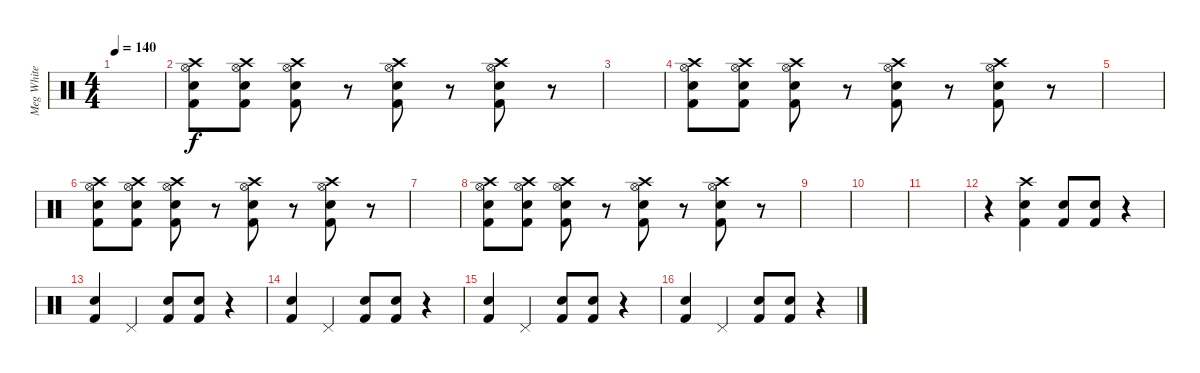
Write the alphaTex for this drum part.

\track ("Meg White" "Meg White") {instrument percussion}
\staff {score}
\articulation defaults
\ts (4 4)
\tempo 140
\clef neutral
\ks c
|
("Crash high (hit)" "Electric Snare (hit)" "Kick (hit) 2" "Hi-Hat (open)").8 ("Crash high (hit)" "Electric Snare (hit)" "Kick (hit) 2" "Hi-Hat (open)").8 ("Crash high (hit)" "Electric Snare (hit)" "Kick (hit) 2" "Hi-Hat (open)").8 r.8 ("Crash high (hit)" "Electric Snare (hit)" "Kick (hit) 2" "Hi-Hat (open)").8 r.8 ("Crash high (hit)" "Electric Snare (hit)" "Kick (hit) 2" "Hi-Hat (open)").8 r.8 |
|
("Crash high (hit)" "Electric Snare (hit)" "Kick (hit) 2" "Hi-Hat (open)").8 ("Crash high (hit)" "Electric Snare (hit)" "Kick (hit) 2" "Hi-Hat (open)").8 ("Crash high (hit)" "Electric Snare (hit)" "Kick (hit) 2" "Hi-Hat (open)").8 r.8 ("Crash high (hit)" "Electric Snare (hit)" "Kick (hit) 2" "Hi-Hat (open)").8 r.8 ("Crash high (hit)" "Electric Snare (hit)" "Kick (hit) 2" "Hi-Hat (open)").8 r.8 |
|
("Crash high (hit)" "Electric Snare (hit)" "Kick (hit) 2" "Hi-Hat (open)").8 ("Crash high (hit)" "Electric Snare (hit)" "Kick (hit) 2" "Hi-Hat (open)").8 ("Crash high (hit)" "Electric Snare (hit)" "Kick (hit) 2" "Hi-Hat (open)").8 r.8 ("Crash high (hit)" "Electric Snare (hit)" "Kick (hit) 2" "Hi-Hat (open)").8 r.8 ("Crash high (hit)" "Electric Snare (hit)" "Kick (hit) 2" "Hi-Hat (open)").8 r.8 |
|
("Crash high (hit)" "Electric Snare (hit)" "Kick (hit) 2" "Hi-Hat (open)").8 ("Crash high (hit)" "Electric Snare (hit)" "Kick (hit) 2" "Hi-Hat (open)").8 ("Crash high (hit)" "Electric Snare (hit)" "Kick (hit) 2" "Hi-Hat (open)").8 r.8 ("Crash high (hit)" "Electric Snare (hit)" "Kick (hit) 2" "Hi-Hat (open)").8 r.8 ("Crash high (hit)" "Electric Snare (hit)" "Kick (hit) 2" "Hi-Hat (open)").8 r.8 |
|
|
|
r.4 ("Crash high (hit)" "Electric Snare (hit)" "Kick (hit) 2").4 ("Electric Snare (hit)" "Kick (hit) 2").8 ("Electric Snare (hit)" "Kick (hit) 2").8 r.4 |
("Electric Snare (hit)" "Kick (hit) 2").4 "Pedal Hi-Hat (hit)".4 ("Electric Snare (hit)" "Kick (hit) 2").8 ("Electric Snare (hit)" "Kick (hit) 2").8 r.4 |
("Electric Snare (hit)" "Kick (hit) 2").4 "Pedal Hi-Hat (hit)".4 ("Electric Snare (hit)" "Kick (hit) 2").8 ("Electric Snare (hit)" "Kick (hit) 2").8 r.4 |
("Electric Snare (hit)" "Kick (hit) 2").4 "Pedal Hi-Hat (hit)".4 ("Electric Snare (hit)" "Kick (hit) 2").8 ("Electric Snare (hit)" "Kick (hit) 2").8 r.4 |
("Electric Snare (hit)" "Kick (hit) 2").4 "Pedal Hi-Hat (hit)".4 ("Electric Snare (hit)" "Kick (hit) 2").8 ("Electric Snare (hit)" "Kick (hit) 2").8 r.4
